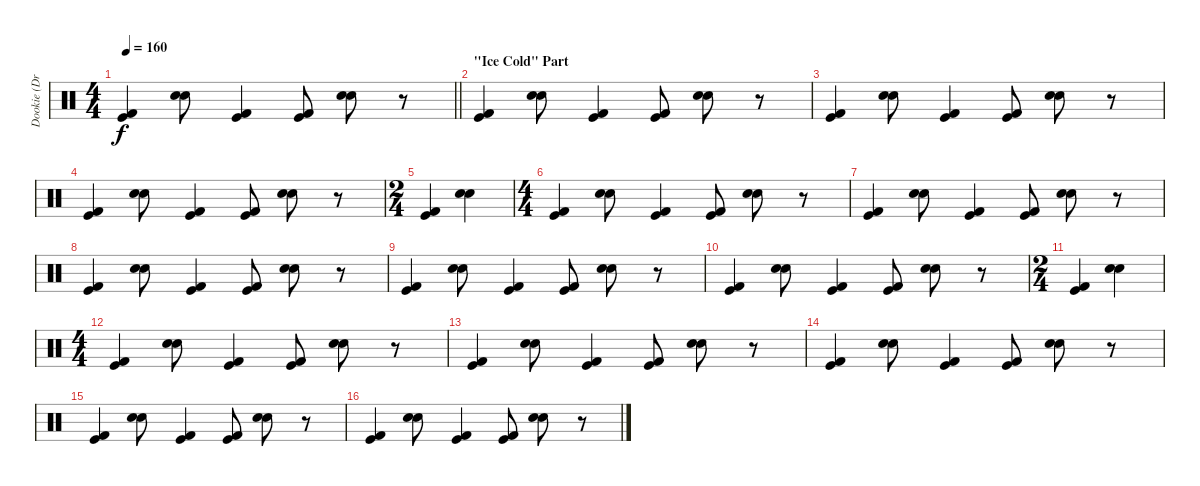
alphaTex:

\track ("Dookie (Drums)" "Dookie (Dr") {instrument percussion}
\staff {score}
\articulation defaults
\ts (4 4)
\tempo 160
\clef neutral
\barLineRight lightlight
\ks c
("Kick (hit) 2" "Kick (hit)").4{dy f} ("Electric Snare (hit)" "Electric Snare (hit)").8 ("Kick (hit) 2" "Kick (hit)").4 ("Kick (hit) 2" "Kick (hit)").8 ("Electric Snare (hit)" "Electric Snare (hit)").8 r.8 |
\section ("" "\"Ice Cold\" Part")
("Kick (hit) 2" "Kick (hit)").4 ("Electric Snare (hit)" "Electric Snare (hit)").8 ("Kick (hit) 2" "Kick (hit)").4 ("Kick (hit) 2" "Kick (hit)").8 ("Electric Snare (hit)" "Electric Snare (hit)").8 r.8 |
("Kick (hit) 2" "Kick (hit)").4 ("Electric Snare (hit)" "Electric Snare (hit)").8 ("Kick (hit) 2" "Kick (hit)").4 ("Kick (hit) 2" "Kick (hit)").8 ("Electric Snare (hit)" "Electric Snare (hit)").8 r.8 |
("Kick (hit) 2" "Kick (hit)").4 ("Electric Snare (hit)" "Electric Snare (hit)").8 ("Kick (hit) 2" "Kick (hit)").4 ("Kick (hit) 2" "Kick (hit)").8 ("Electric Snare (hit)" "Electric Snare (hit)").8 r.8 |
\ts (2 4)
("Kick (hit) 2" "Kick (hit)").4 ("Electric Snare (hit)" "Electric Snare (hit)").4 |
\ts (4 4)
("Kick (hit) 2" "Kick (hit)").4 ("Electric Snare (hit)" "Electric Snare (hit)").8 ("Kick (hit) 2" "Kick (hit)").4 ("Kick (hit) 2" "Kick (hit)").8 ("Electric Snare (hit)" "Electric Snare (hit)").8 r.8 |
("Kick (hit) 2" "Kick (hit)").4 ("Electric Snare (hit)" "Electric Snare (hit)").8 ("Kick (hit) 2" "Kick (hit)").4 ("Kick (hit) 2" "Kick (hit)").8 ("Electric Snare (hit)" "Electric Snare (hit)").8 r.8 |
("Kick (hit) 2" "Kick (hit)").4 ("Electric Snare (hit)" "Electric Snare (hit)").8 ("Kick (hit) 2" "Kick (hit)").4 ("Kick (hit) 2" "Kick (hit)").8 ("Electric Snare (hit)" "Electric Snare (hit)").8 r.8 |
("Kick (hit) 2" "Kick (hit)").4 ("Electric Snare (hit)" "Electric Snare (hit)").8 ("Kick (hit) 2" "Kick (hit)").4 ("Kick (hit) 2" "Kick (hit)").8 ("Electric Snare (hit)" "Electric Snare (hit)").8 r.8 |
("Kick (hit) 2" "Kick (hit)").4 ("Electric Snare (hit)" "Electric Snare (hit)").8 ("Kick (hit) 2" "Kick (hit)").4 ("Kick (hit) 2" "Kick (hit)").8 ("Electric Snare (hit)" "Electric Snare (hit)").8 r.8 |
\ts (2 4)
("Kick (hit) 2" "Kick (hit)").4 ("Electric Snare (hit)" "Electric Snare (hit)").4 |
\ts (4 4)
("Kick (hit) 2" "Kick (hit)").4 ("Electric Snare (hit)" "Electric Snare (hit)").8 ("Kick (hit) 2" "Kick (hit)").4 ("Kick (hit) 2" "Kick (hit)").8 ("Electric Snare (hit)" "Electric Snare (hit)").8 r.8 |
("Kick (hit) 2" "Kick (hit)").4 ("Electric Snare (hit)" "Electric Snare (hit)").8 ("Kick (hit) 2" "Kick (hit)").4 ("Kick (hit) 2" "Kick (hit)").8 ("Electric Snare (hit)" "Electric Snare (hit)").8 r.8 |
("Kick (hit) 2" "Kick (hit)").4 ("Electric Snare (hit)" "Electric Snare (hit)").8 ("Kick (hit) 2" "Kick (hit)").4 ("Kick (hit) 2" "Kick (hit)").8 ("Electric Snare (hit)" "Electric Snare (hit)").8 r.8 |
("Kick (hit) 2" "Kick (hit)").4 ("Electric Snare (hit)" "Electric Snare (hit)").8 ("Kick (hit) 2" "Kick (hit)").4 ("Kick (hit) 2" "Kick (hit)").8 ("Electric Snare (hit)" "Electric Snare (hit)").8 r.8 |
("Kick (hit) 2" "Kick (hit)").4 ("Electric Snare (hit)" "Electric Snare (hit)").8 ("Kick (hit) 2" "Kick (hit)").4 ("Kick (hit) 2" "Kick (hit)").8 ("Electric Snare (hit)" "Electric Snare (hit)").8 r.8
